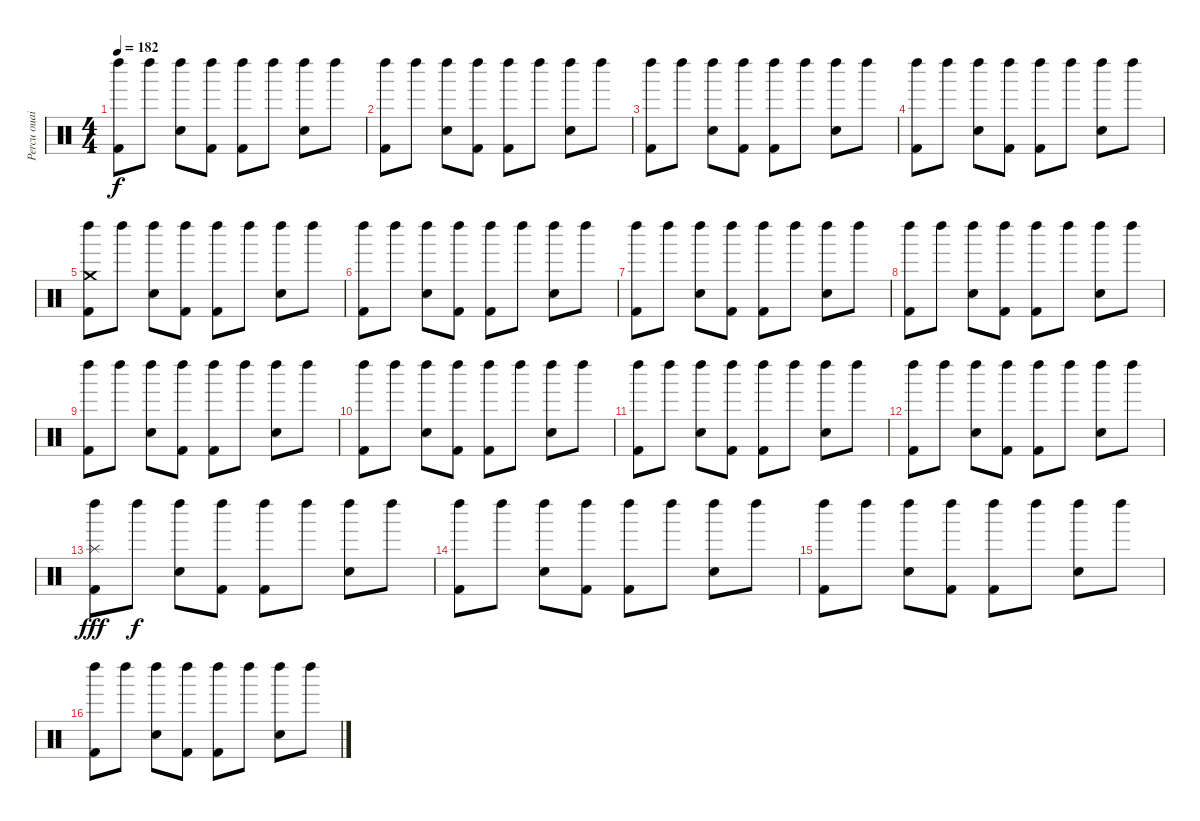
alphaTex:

\track ("Percu ouaih !" "Percu ouai") {instrument percussion}
\staff {score}
\articulation defaults
\ts (4 4)
\tempo 182
\clef neutral
\ks c
("Left Maraca (hit)" "Kick (hit) 2").8{dy f} "Left Maraca (hit)".8 ("Left Maraca (hit)" "Snare (hit) 2").8 ("Left Maraca (hit)" "Kick (hit) 2").8 ("Left Maraca (hit)" "Kick (hit) 2").8 "Left Maraca (hit)".8 ("Left Maraca (hit)" "Electric Snare (hit)").8 "Left Maraca (hit)".8 |
("Left Maraca (hit)" "Kick (hit) 2").8 "Left Maraca (hit)".8 ("Left Maraca (hit)" "Snare (hit) 2").8 ("Left Maraca (hit)" "Kick (hit) 2").8 ("Left Maraca (hit)" "Kick (hit) 2").8 "Left Maraca (hit)".8 ("Left Maraca (hit)" "Electric Snare (hit)").8 "Left Maraca (hit)".8 |
("Left Maraca (hit)" "Kick (hit) 2").8 "Left Maraca (hit)".8 ("Left Maraca (hit)" "Snare (hit) 2").8 ("Left Maraca (hit)" "Kick (hit) 2").8 ("Left Maraca (hit)" "Kick (hit) 2").8 "Left Maraca (hit)".8 ("Left Maraca (hit)" "Electric Snare (hit)").8 "Left Maraca (hit)".8 |
("Left Maraca (hit)" "Kick (hit) 2").8 "Left Maraca (hit)".8 ("Left Maraca (hit)" "Snare (hit) 2").8 ("Left Maraca (hit)" "Kick (hit) 2").8 ("Left Maraca (hit)" "Kick (hit) 2").8 "Left Maraca (hit)".8 ("Left Maraca (hit)" "Electric Snare (hit)").8 "Left Maraca (hit)".8 |
("Left Maraca (hit)" "Crash medium (hit)" "Kick (hit) 2").8 "Left Maraca (hit)".8 ("Left Maraca (hit)" "Snare (hit) 2").8 ("Left Maraca (hit)" "Kick (hit) 2").8 ("Left Maraca (hit)" "Kick (hit) 2").8 "Left Maraca (hit)".8 ("Left Maraca (hit)" "Electric Snare (hit)").8 "Left Maraca (hit)".8 |
("Left Maraca (hit)" "Kick (hit) 2").8 "Left Maraca (hit)".8 ("Left Maraca (hit)" "Snare (hit) 2").8 ("Left Maraca (hit)" "Kick (hit) 2").8 ("Left Maraca (hit)" "Kick (hit) 2").8 "Left Maraca (hit)".8 ("Left Maraca (hit)" "Electric Snare (hit)").8 "Left Maraca (hit)".8 |
("Left Maraca (hit)" "Kick (hit) 2").8 "Left Maraca (hit)".8 ("Left Maraca (hit)" "Snare (hit) 2").8 ("Left Maraca (hit)" "Kick (hit) 2").8 ("Left Maraca (hit)" "Kick (hit) 2").8 "Left Maraca (hit)".8 ("Left Maraca (hit)" "Electric Snare (hit)").8 "Left Maraca (hit)".8 |
("Left Maraca (hit)" "Kick (hit) 2").8 "Left Maraca (hit)".8 ("Left Maraca (hit)" "Snare (hit) 2").8 ("Left Maraca (hit)" "Kick (hit) 2").8 ("Left Maraca (hit)" "Kick (hit) 2").8 "Left Maraca (hit)".8 ("Left Maraca (hit)" "Electric Snare (hit)").8 "Left Maraca (hit)".8 |
("Left Maraca (hit)" "Kick (hit) 2").8 "Left Maraca (hit)".8 ("Left Maraca (hit)" "Snare (hit) 2").8 ("Left Maraca (hit)" "Kick (hit) 2").8 ("Left Maraca (hit)" "Kick (hit) 2").8 "Left Maraca (hit)".8 ("Left Maraca (hit)" "Electric Snare (hit)").8 "Left Maraca (hit)".8 |
("Left Maraca (hit)" "Kick (hit) 2").8 "Left Maraca (hit)".8 ("Left Maraca (hit)" "Snare (hit) 2").8 ("Left Maraca (hit)" "Kick (hit) 2").8 ("Left Maraca (hit)" "Kick (hit) 2").8 "Left Maraca (hit)".8 ("Left Maraca (hit)" "Electric Snare (hit)").8 "Left Maraca (hit)".8 |
("Left Maraca (hit)" "Kick (hit) 2").8 "Left Maraca (hit)".8 ("Left Maraca (hit)" "Snare (hit) 2").8 ("Left Maraca (hit)" "Kick (hit) 2").8 ("Left Maraca (hit)" "Kick (hit) 2").8 "Left Maraca (hit)".8 ("Left Maraca (hit)" "Electric Snare (hit)").8 "Left Maraca (hit)".8 |
("Left Maraca (hit)" "Kick (hit) 2").8 "Left Maraca (hit)".8 ("Left Maraca (hit)" "Snare (hit) 2").8 ("Left Maraca (hit)" "Kick (hit) 2").8 ("Left Maraca (hit)" "Kick (hit) 2").8 "Left Maraca (hit)".8 ("Left Maraca (hit)" "Electric Snare (hit)").8 "Left Maraca (hit)".8 |
("Left Maraca (hit)" "Splash (hit)" "Kick (hit) 2").8{dy fff} "Left Maraca (hit)".8{dy f} ("Left Maraca (hit)" "Snare (hit) 2").8 ("Left Maraca (hit)" "Kick (hit) 2").8 ("Left Maraca (hit)" "Kick (hit) 2").8 "Left Maraca (hit)".8 ("Left Maraca (hit)" "Electric Snare (hit)").8 "Left Maraca (hit)".8 |
("Left Maraca (hit)" "Kick (hit) 2").8 "Left Maraca (hit)".8 ("Left Maraca (hit)" "Snare (hit) 2").8 ("Left Maraca (hit)" "Kick (hit) 2").8 ("Left Maraca (hit)" "Kick (hit) 2").8 "Left Maraca (hit)".8 ("Left Maraca (hit)" "Electric Snare (hit)").8 "Left Maraca (hit)".8 |
("Left Maraca (hit)" "Kick (hit) 2").8 "Left Maraca (hit)".8 ("Left Maraca (hit)" "Snare (hit) 2").8 ("Left Maraca (hit)" "Kick (hit) 2").8 ("Left Maraca (hit)" "Kick (hit) 2").8 "Left Maraca (hit)".8 ("Left Maraca (hit)" "Electric Snare (hit)").8 "Left Maraca (hit)".8 |
("Left Maraca (hit)" "Kick (hit) 2").8 "Left Maraca (hit)".8 ("Left Maraca (hit)" "Snare (hit) 2").8 ("Left Maraca (hit)" "Kick (hit) 2").8 ("Left Maraca (hit)" "Kick (hit) 2").8 "Left Maraca (hit)".8 ("Left Maraca (hit)" "Electric Snare (hit)").8 "Left Maraca (hit)".8
